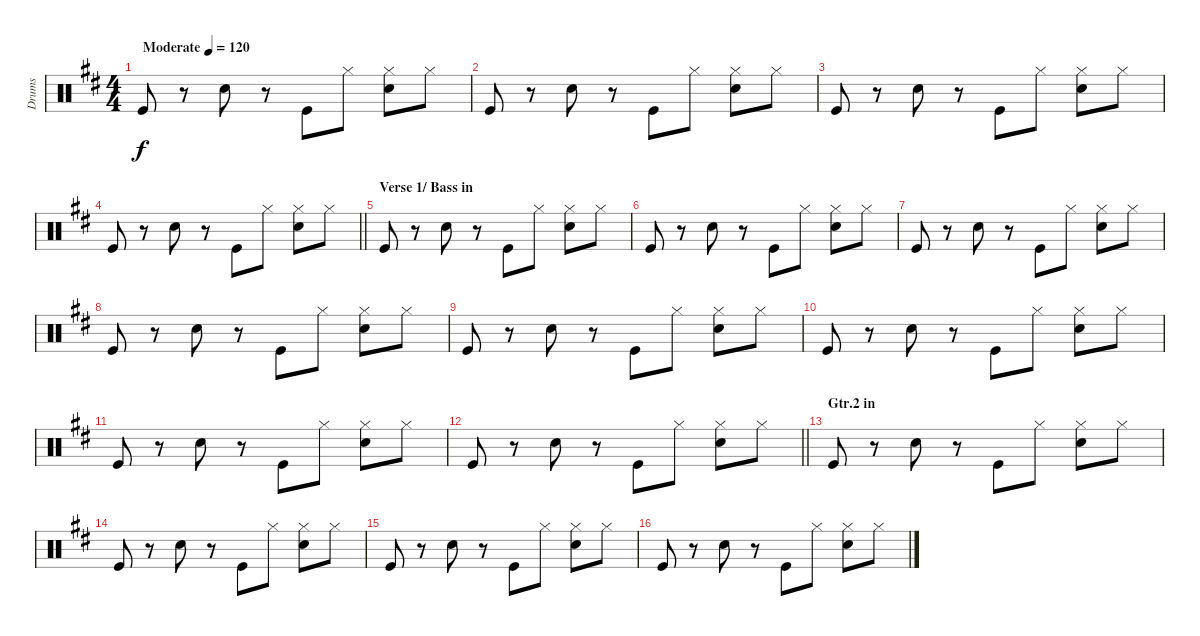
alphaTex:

\track ("Drums" "Drums") {instrument percussion}
\staff {score}
\articulation defaults
\ts (4 4)
\tempo (120 "Moderate")
\clef neutral
\ks d "Kick (hit)".8{dy f}
r.8 "Snare (hit) 2".8 r.8 "Kick (hit)".8 "Hi-Hat (closed)".8 ("Hi-Hat (closed)" "Snare (hit) 2").8 "Hi-Hat (closed)".8 |
"Kick (hit)".8 r.8 "Snare (hit) 2".8 r.8 "Kick (hit)".8 "Hi-Hat (closed)".8 ("Hi-Hat (closed)" "Snare (hit) 2").8 "Hi-Hat (closed)".8 |
"Kick (hit)".8 r.8 "Snare (hit) 2".8 r.8 "Kick (hit)".8 "Hi-Hat (closed)".8 ("Hi-Hat (closed)" "Snare (hit) 2").8 "Hi-Hat (closed)".8 |
\barLineRight lightlight "Kick (hit)".8
r.8 "Snare (hit) 2".8 r.8 "Kick (hit)".8 "Hi-Hat (closed)".8 ("Hi-Hat (closed)" "Snare (hit) 2").8 "Hi-Hat (closed)".8 |
\section ("" "Verse 1/ Bass in")
"Kick (hit)".8 r.8 "Snare (hit) 2".8 r.8 "Kick (hit)".8 "Hi-Hat (closed)".8 ("Hi-Hat (closed)" "Snare (hit) 2").8 "Hi-Hat (closed)".8 |
"Kick (hit)".8 r.8 "Snare (hit) 2".8 r.8 "Kick (hit)".8 "Hi-Hat (closed)".8 ("Hi-Hat (closed)" "Snare (hit) 2").8 "Hi-Hat (closed)".8 |
"Kick (hit)".8 r.8 "Snare (hit) 2".8 r.8 "Kick (hit)".8 "Hi-Hat (closed)".8 ("Hi-Hat (closed)" "Snare (hit) 2").8 "Hi-Hat (closed)".8 |
"Kick (hit)".8 r.8 "Snare (hit) 2".8 r.8 "Kick (hit)".8 "Hi-Hat (closed)".8 ("Hi-Hat (closed)" "Snare (hit) 2").8 "Hi-Hat (closed)".8 |
"Kick (hit)".8 r.8 "Snare (hit) 2".8 r.8 "Kick (hit)".8 "Hi-Hat (closed)".8 ("Hi-Hat (closed)" "Snare (hit) 2").8 "Hi-Hat (closed)".8 |
"Kick (hit)".8 r.8 "Snare (hit) 2".8 r.8 "Kick (hit)".8 "Hi-Hat (closed)".8 ("Hi-Hat (closed)" "Snare (hit) 2").8 "Hi-Hat (closed)".8 |
"Kick (hit)".8 r.8 "Snare (hit) 2".8 r.8 "Kick (hit)".8 "Hi-Hat (closed)".8 ("Hi-Hat (closed)" "Snare (hit) 2").8 "Hi-Hat (closed)".8 |
\barLineRight lightlight "Kick (hit)".8
r.8 "Snare (hit) 2".8 r.8 "Kick (hit)".8 "Hi-Hat (closed)".8 ("Hi-Hat (closed)" "Snare (hit) 2").8 "Hi-Hat (closed)".8 |
\section ("" "Gtr.2 in")
"Kick (hit)".8 r.8 "Snare (hit) 2".8 r.8 "Kick (hit)".8 "Hi-Hat (closed)".8 ("Hi-Hat (closed)" "Snare (hit) 2").8 "Hi-Hat (closed)".8 |
"Kick (hit)".8 r.8 "Snare (hit) 2".8 r.8 "Kick (hit)".8 "Hi-Hat (closed)".8 ("Hi-Hat (closed)" "Snare (hit) 2").8 "Hi-Hat (closed)".8 |
"Kick (hit)".8 r.8 "Snare (hit) 2".8 r.8 "Kick (hit)".8 "Hi-Hat (closed)".8 ("Hi-Hat (closed)" "Snare (hit) 2").8 "Hi-Hat (closed)".8 |
"Kick (hit)".8 r.8 "Snare (hit) 2".8 r.8 "Kick (hit)".8 "Hi-Hat (closed)".8 ("Hi-Hat (closed)" "Snare (hit) 2").8 "Hi-Hat (closed)".8
